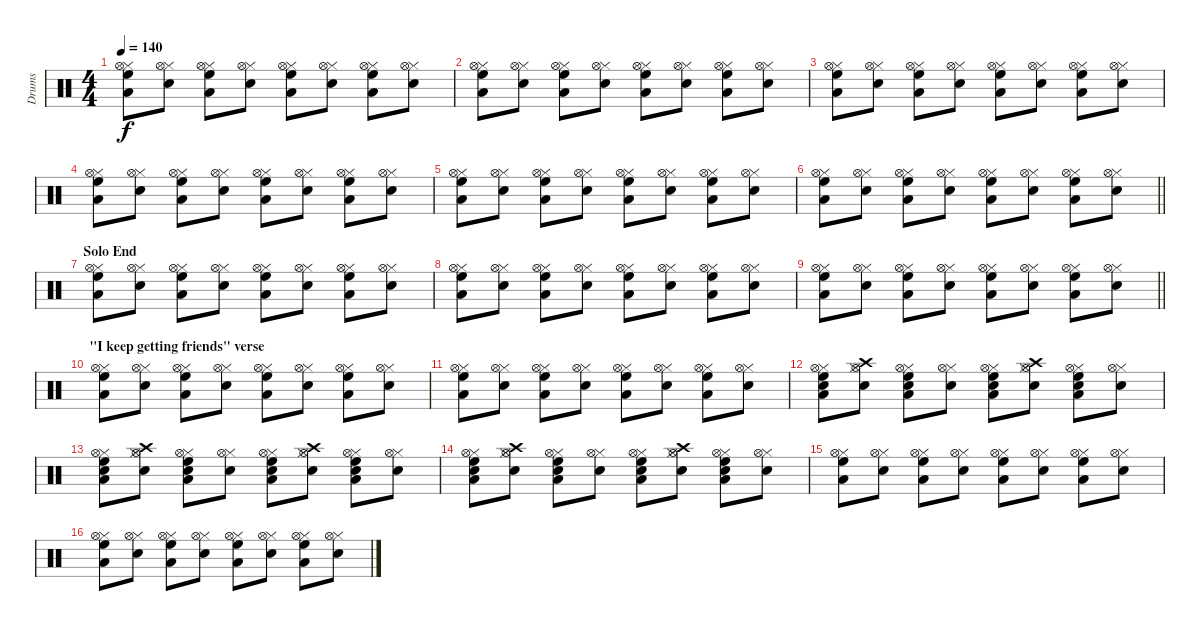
\track ("Drums" "Drums") {instrument percussion}
\staff {score}
\articulation defaults
\ts (4 4)
\tempo 140
\clef neutral
\ks c
("Hi-Hat (closed)" "Low Tom (hit)" "Hi-Hat (open)" "High Floor Tom (hit)").8{dy f} ("Hi-Hat (closed)" "Hi-Hat (open)" "Electric Snare (hit)").8 ("Hi-Hat (closed)" "Low Tom (hit)" "Hi-Hat (open)" "High Floor Tom (hit)").8 ("Hi-Hat (closed)" "Hi-Hat (open)" "Electric Snare (hit)").8 ("Hi-Hat (closed)" "Low Tom (hit)" "Hi-Hat (open)" "High Floor Tom (hit)").8 ("Hi-Hat (closed)" "Hi-Hat (open)" "Electric Snare (hit)").8 ("Hi-Hat (closed)" "Low Tom (hit)" "Hi-Hat (open)" "High Floor Tom (hit)").8 ("Hi-Hat (closed)" "Hi-Hat (open)" "Electric Snare (hit)").8 |
("Hi-Hat (closed)" "Low Tom (hit)" "Hi-Hat (open)" "High Floor Tom (hit)").8 ("Hi-Hat (closed)" "Hi-Hat (open)" "Electric Snare (hit)").8 ("Hi-Hat (closed)" "Low Tom (hit)" "Hi-Hat (open)" "High Floor Tom (hit)").8 ("Hi-Hat (closed)" "Hi-Hat (open)" "Electric Snare (hit)").8 ("Hi-Hat (closed)" "Low Tom (hit)" "Hi-Hat (open)" "High Floor Tom (hit)").8 ("Hi-Hat (closed)" "Hi-Hat (open)" "Electric Snare (hit)").8 ("Hi-Hat (closed)" "Low Tom (hit)" "Hi-Hat (open)" "High Floor Tom (hit)").8 ("Hi-Hat (closed)" "Hi-Hat (open)" "Electric Snare (hit)").8 |
("Hi-Hat (closed)" "Low Tom (hit)" "Hi-Hat (open)" "High Floor Tom (hit)").8 ("Hi-Hat (closed)" "Hi-Hat (open)" "Electric Snare (hit)").8 ("Hi-Hat (closed)" "Low Tom (hit)" "Hi-Hat (open)" "High Floor Tom (hit)").8 ("Hi-Hat (closed)" "Hi-Hat (open)" "Electric Snare (hit)").8 ("Hi-Hat (closed)" "Low Tom (hit)" "Hi-Hat (open)" "High Floor Tom (hit)").8 ("Hi-Hat (closed)" "Hi-Hat (open)" "Electric Snare (hit)").8 ("Hi-Hat (closed)" "Low Tom (hit)" "Hi-Hat (open)" "High Floor Tom (hit)").8 ("Hi-Hat (closed)" "Hi-Hat (open)" "Electric Snare (hit)").8 |
("Hi-Hat (closed)" "Low Tom (hit)" "Hi-Hat (open)" "High Floor Tom (hit)").8 ("Hi-Hat (closed)" "Hi-Hat (open)" "Electric Snare (hit)").8 ("Hi-Hat (closed)" "Low Tom (hit)" "Hi-Hat (open)" "High Floor Tom (hit)").8 ("Hi-Hat (closed)" "Hi-Hat (open)" "Electric Snare (hit)").8 ("Hi-Hat (closed)" "Low Tom (hit)" "Hi-Hat (open)" "High Floor Tom (hit)").8 ("Hi-Hat (closed)" "Hi-Hat (open)" "Electric Snare (hit)").8 ("Hi-Hat (closed)" "Low Tom (hit)" "Hi-Hat (open)" "High Floor Tom (hit)").8 ("Hi-Hat (closed)" "Hi-Hat (open)" "Electric Snare (hit)").8 |
("Hi-Hat (closed)" "Low Tom (hit)" "Hi-Hat (open)" "High Floor Tom (hit)").8 ("Hi-Hat (closed)" "Hi-Hat (open)" "Electric Snare (hit)").8 ("Hi-Hat (closed)" "Low Tom (hit)" "Hi-Hat (open)" "High Floor Tom (hit)").8 ("Hi-Hat (closed)" "Hi-Hat (open)" "Electric Snare (hit)").8 ("Hi-Hat (closed)" "Low Tom (hit)" "Hi-Hat (open)" "High Floor Tom (hit)").8 ("Hi-Hat (closed)" "Hi-Hat (open)" "Electric Snare (hit)").8 ("Hi-Hat (closed)" "Low Tom (hit)" "Hi-Hat (open)" "High Floor Tom (hit)").8 ("Hi-Hat (closed)" "Hi-Hat (open)" "Electric Snare (hit)").8 |
\barLineRight lightlight
("Hi-Hat (closed)" "Low Tom (hit)" "Hi-Hat (open)" "High Floor Tom (hit)").8 ("Hi-Hat (closed)" "Hi-Hat (open)" "Electric Snare (hit)").8 ("Hi-Hat (closed)" "Low Tom (hit)" "Hi-Hat (open)" "High Floor Tom (hit)").8 ("Hi-Hat (closed)" "Hi-Hat (open)" "Electric Snare (hit)").8 ("Hi-Hat (closed)" "Low Tom (hit)" "Hi-Hat (open)" "High Floor Tom (hit)").8 ("Hi-Hat (closed)" "Hi-Hat (open)" "Electric Snare (hit)").8 ("Hi-Hat (closed)" "Low Tom (hit)" "Hi-Hat (open)" "High Floor Tom (hit)").8 ("Hi-Hat (closed)" "Hi-Hat (open)" "Electric Snare (hit)").8 |
\section ("" "Solo End")
("Hi-Hat (closed)" "Low Tom (hit)" "Hi-Hat (open)" "High Floor Tom (hit)").8 ("Hi-Hat (closed)" "Hi-Hat (open)" "Electric Snare (hit)").8 ("Hi-Hat (closed)" "Low Tom (hit)" "Hi-Hat (open)" "High Floor Tom (hit)").8 ("Hi-Hat (closed)" "Hi-Hat (open)" "Electric Snare (hit)").8 ("Hi-Hat (closed)" "Low Tom (hit)" "Hi-Hat (open)" "High Floor Tom (hit)").8 ("Hi-Hat (closed)" "Hi-Hat (open)" "Electric Snare (hit)").8 ("Hi-Hat (closed)" "Low Tom (hit)" "Hi-Hat (open)" "High Floor Tom (hit)").8 ("Hi-Hat (closed)" "Hi-Hat (open)" "Electric Snare (hit)").8 |
("Hi-Hat (closed)" "Low Tom (hit)" "Hi-Hat (open)" "High Floor Tom (hit)").8 ("Hi-Hat (closed)" "Hi-Hat (open)" "Electric Snare (hit)").8 ("Hi-Hat (closed)" "Low Tom (hit)" "Hi-Hat (open)" "High Floor Tom (hit)").8 ("Hi-Hat (closed)" "Hi-Hat (open)" "Electric Snare (hit)").8 ("Hi-Hat (closed)" "Low Tom (hit)" "Hi-Hat (open)" "High Floor Tom (hit)").8 ("Hi-Hat (closed)" "Hi-Hat (open)" "Electric Snare (hit)").8 ("Hi-Hat (closed)" "Low Tom (hit)" "Hi-Hat (open)" "High Floor Tom (hit)").8 ("Hi-Hat (closed)" "Hi-Hat (open)" "Electric Snare (hit)").8 |
\barLineRight lightlight
("Hi-Hat (closed)" "Low Tom (hit)" "Hi-Hat (open)" "High Floor Tom (hit)").8 ("Hi-Hat (closed)" "Hi-Hat (open)" "Electric Snare (hit)").8 ("Hi-Hat (closed)" "Low Tom (hit)" "Hi-Hat (open)" "High Floor Tom (hit)").8 ("Hi-Hat (closed)" "Hi-Hat (open)" "Electric Snare (hit)").8 ("Hi-Hat (closed)" "Low Tom (hit)" "Hi-Hat (open)" "High Floor Tom (hit)").8 ("Hi-Hat (closed)" "Hi-Hat (open)" "Electric Snare (hit)").8 ("Hi-Hat (closed)" "Low Tom (hit)" "Hi-Hat (open)" "High Floor Tom (hit)").8 ("Hi-Hat (closed)" "Hi-Hat (open)" "Electric Snare (hit)").8 |
\section ("" "\"I keep getting friends\" verse")
("Hi-Hat (closed)" "Low Tom (hit)" "Hi-Hat (open)" "High Floor Tom (hit)").8 ("Hi-Hat (closed)" "Hi-Hat (open)" "Electric Snare (hit)").8 ("Hi-Hat (closed)" "Low Tom (hit)" "Hi-Hat (open)" "High Floor Tom (hit)").8 ("Hi-Hat (closed)" "Hi-Hat (open)" "Electric Snare (hit)").8 ("Hi-Hat (closed)" "Low Tom (hit)" "Hi-Hat (open)" "High Floor Tom (hit)").8 ("Hi-Hat (closed)" "Hi-Hat (open)" "Electric Snare (hit)").8 ("Hi-Hat (closed)" "Low Tom (hit)" "Hi-Hat (open)" "High Floor Tom (hit)").8 ("Hi-Hat (closed)" "Hi-Hat (open)" "Electric Snare (hit)").8 |
("Hi-Hat (closed)" "Low Tom (hit)" "Hi-Hat (open)" "High Floor Tom (hit)").8 ("Hi-Hat (closed)" "Hi-Hat (open)" "Electric Snare (hit)").8 ("Hi-Hat (closed)" "Low Tom (hit)" "Hi-Hat (open)" "High Floor Tom (hit)").8 ("Hi-Hat (closed)" "Hi-Hat (open)" "Electric Snare (hit)").8 ("Hi-Hat (closed)" "Low Tom (hit)" "Hi-Hat (open)" "High Floor Tom (hit)").8 ("Hi-Hat (closed)" "Hi-Hat (open)" "Electric Snare (hit)").8 ("Hi-Hat (closed)" "Low Tom (hit)" "Hi-Hat (open)" "High Floor Tom (hit)").8 ("Hi-Hat (closed)" "Hi-Hat (open)" "Electric Snare (hit)").8 |
("Hi-Hat (closed)" "Electric Snare (hit)" "Low Tom (hit)" "Hi-Hat (open)" "High Floor Tom (hit)").8 ("Hi-Hat (closed)" "Hi-Hat (open)" "Crash high (hit)" "Electric Snare (hit)").8 ("Hi-Hat (closed)" "Electric Snare (hit)" "Low Tom (hit)" "Hi-Hat (open)" "High Floor Tom (hit)").8 ("Hi-Hat (closed)" "Hi-Hat (open)" "Electric Snare (hit)").8 ("Hi-Hat (closed)" "Electric Snare (hit)" "Low Tom (hit)" "Hi-Hat (open)" "High Floor Tom (hit)").8 ("Hi-Hat (closed)" "Hi-Hat (open)" "Crash high (hit)" "Electric Snare (hit)").8 ("Hi-Hat (closed)" "Electric Snare (hit)" "Low Tom (hit)" "Hi-Hat (open)" "High Floor Tom (hit)").8 ("Hi-Hat (closed)" "Hi-Hat (open)" "Electric Snare (hit)").8 |
("Hi-Hat (closed)" "Electric Snare (hit)" "Low Tom (hit)" "Hi-Hat (open)" "High Floor Tom (hit)").8 ("Hi-Hat (closed)" "Hi-Hat (open)" "Crash high (hit)" "Electric Snare (hit)").8 ("Hi-Hat (closed)" "Electric Snare (hit)" "Low Tom (hit)" "Hi-Hat (open)" "High Floor Tom (hit)").8 ("Hi-Hat (closed)" "Hi-Hat (open)" "Electric Snare (hit)").8 ("Hi-Hat (closed)" "Electric Snare (hit)" "Low Tom (hit)" "Hi-Hat (open)" "High Floor Tom (hit)").8 ("Hi-Hat (closed)" "Hi-Hat (open)" "Crash high (hit)" "Electric Snare (hit)").8 ("Hi-Hat (closed)" "Electric Snare (hit)" "Low Tom (hit)" "Hi-Hat (open)" "High Floor Tom (hit)").8 ("Hi-Hat (closed)" "Hi-Hat (open)" "Electric Snare (hit)").8 |
("Hi-Hat (closed)" "Electric Snare (hit)" "Low Tom (hit)" "Hi-Hat (open)" "High Floor Tom (hit)").8 ("Hi-Hat (closed)" "Hi-Hat (open)" "Crash high (hit)" "Electric Snare (hit)").8 ("Hi-Hat (closed)" "Electric Snare (hit)" "Low Tom (hit)" "Hi-Hat (open)" "High Floor Tom (hit)").8 ("Hi-Hat (closed)" "Hi-Hat (open)" "Electric Snare (hit)").8 ("Hi-Hat (closed)" "Electric Snare (hit)" "Low Tom (hit)" "Hi-Hat (open)" "High Floor Tom (hit)").8 ("Hi-Hat (closed)" "Hi-Hat (open)" "Crash high (hit)" "Electric Snare (hit)").8 ("Hi-Hat (closed)" "Electric Snare (hit)" "Low Tom (hit)" "Hi-Hat (open)" "High Floor Tom (hit)").8 ("Hi-Hat (closed)" "Hi-Hat (open)" "Electric Snare (hit)").8 |
("Hi-Hat (closed)" "Low Tom (hit)" "Hi-Hat (open)" "High Floor Tom (hit)").8 ("Hi-Hat (closed)" "Hi-Hat (open)" "Electric Snare (hit)").8 ("Hi-Hat (closed)" "Low Tom (hit)" "Hi-Hat (open)" "High Floor Tom (hit)").8 ("Hi-Hat (closed)" "Hi-Hat (open)" "Electric Snare (hit)").8 ("Hi-Hat (closed)" "Low Tom (hit)" "Hi-Hat (open)" "High Floor Tom (hit)").8 ("Hi-Hat (closed)" "Hi-Hat (open)" "Electric Snare (hit)").8 ("Hi-Hat (closed)" "Low Tom (hit)" "Hi-Hat (open)" "High Floor Tom (hit)").8 ("Hi-Hat (closed)" "Hi-Hat (open)" "Electric Snare (hit)").8 |
("Hi-Hat (closed)" "Low Tom (hit)" "Hi-Hat (open)" "High Floor Tom (hit)").8 ("Hi-Hat (closed)" "Hi-Hat (open)" "Electric Snare (hit)").8 ("Hi-Hat (closed)" "Low Tom (hit)" "Hi-Hat (open)" "High Floor Tom (hit)").8 ("Hi-Hat (closed)" "Hi-Hat (open)" "Electric Snare (hit)").8 ("Hi-Hat (closed)" "Low Tom (hit)" "Hi-Hat (open)" "High Floor Tom (hit)").8 ("Hi-Hat (closed)" "Hi-Hat (open)" "Electric Snare (hit)").8 ("Hi-Hat (closed)" "Low Tom (hit)" "Hi-Hat (open)" "High Floor Tom (hit)").8 ("Hi-Hat (closed)" "Hi-Hat (open)" "Electric Snare (hit)").8
